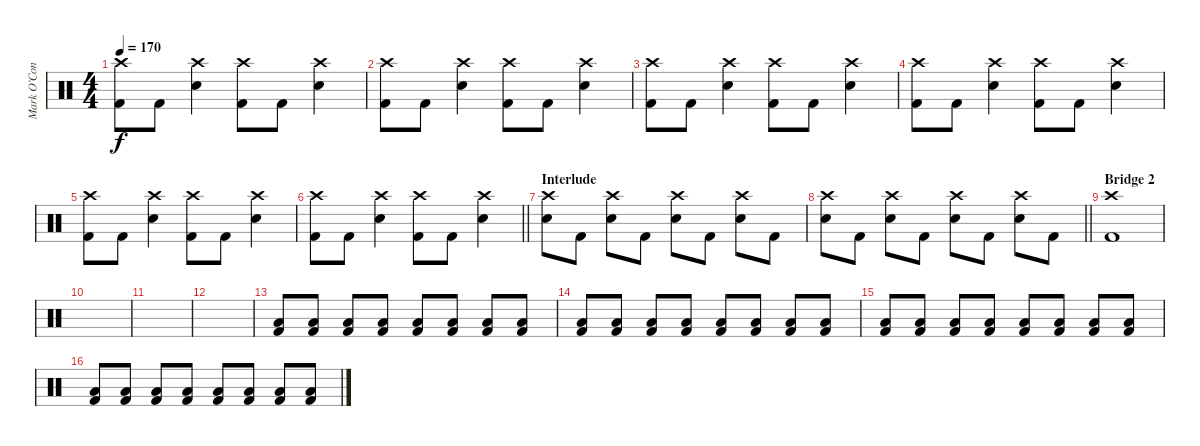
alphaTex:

\track ("Mark O’Connell - Drums" "Mark O’Con") {instrument percussion}
\staff {score}
\articulation defaults
\ts (4 4)
\tempo 170
\clef neutral
\ks c
("Crash high (hit)" "Kick (hit) 2").8{dy f} "Kick (hit) 2".8 ("Crash high (hit)" "Snare (hit) 2").4 ("Crash high (hit)" "Kick (hit) 2").8 "Kick (hit) 2".8 ("Crash high (hit)" "Snare (hit) 2").4 |
("Crash high (hit)" "Kick (hit) 2").8 "Kick (hit) 2".8 ("Crash high (hit)" "Snare (hit) 2").4 ("Crash high (hit)" "Kick (hit) 2").8 "Kick (hit) 2".8 ("Crash high (hit)" "Snare (hit) 2").4 |
("Crash high (hit)" "Kick (hit) 2").8 "Kick (hit) 2".8 ("Crash high (hit)" "Snare (hit) 2").4 ("Crash high (hit)" "Kick (hit) 2").8 "Kick (hit) 2".8 ("Crash high (hit)" "Snare (hit) 2").4 |
("Crash high (hit)" "Kick (hit) 2").8 "Kick (hit) 2".8 ("Crash high (hit)" "Snare (hit) 2").4 ("Crash high (hit)" "Kick (hit) 2").8 "Kick (hit) 2".8 ("Crash high (hit)" "Snare (hit) 2").4 |
("Crash high (hit)" "Kick (hit) 2").8 "Kick (hit) 2".8 ("Crash high (hit)" "Snare (hit) 2").4 ("Crash high (hit)" "Kick (hit) 2").8 "Kick (hit) 2".8 ("Crash high (hit)" "Snare (hit) 2").4 |
\barLineRight lightlight
("Crash high (hit)" "Kick (hit) 2").8 "Kick (hit) 2".8 ("Crash high (hit)" "Snare (hit) 2").4 ("Crash high (hit)" "Kick (hit) 2").8 "Kick (hit) 2".8 ("Crash high (hit)" "Snare (hit) 2").4 |
\section ("" "Interlude")
("Crash high (hit)" "Snare (hit) 2").8 "Kick (hit) 2".8 ("Crash high (hit)" "Snare (hit) 2").8 "Kick (hit) 2".8 ("Crash high (hit)" "Snare (hit) 2").8 "Kick (hit) 2".8 ("Crash high (hit)" "Snare (hit) 2").8 "Kick (hit) 2".8 |
\barLineRight lightlight
("Crash high (hit)" "Snare (hit) 2").8 "Kick (hit) 2".8 ("Crash high (hit)" "Snare (hit) 2").8 "Kick (hit) 2".8 ("Crash high (hit)" "Snare (hit) 2").8 "Kick (hit) 2".8 ("Crash high (hit)" "Snare (hit) 2").8 "Kick (hit) 2".8 |
\section ("" "Bridge 2")
("Crash high (hit)" "Kick (hit) 2").1 |
|
|
|
("Low Tom (hit)" "Kick (hit) 2").8{volume 10} ("Low Tom (hit)" "Kick (hit) 2").8{volume 13} ("Low Tom (hit)" "Kick (hit) 2").8 ("Low Tom (hit)" "Kick (hit) 2").8 ("Low Tom (hit)" "Kick (hit) 2").8 ("Low Tom (hit)" "Kick (hit) 2").8 ("Low Tom (hit)" "Kick (hit) 2").8 ("Low Tom (hit)" "Kick (hit) 2").8 |
("Low Tom (hit)" "Kick (hit) 2").8 ("Low Tom (hit)" "Kick (hit) 2").8 ("Low Tom (hit)" "Kick (hit) 2").8 ("Low Tom (hit)" "Kick (hit) 2").8 ("Low Tom (hit)" "Kick (hit) 2").8 ("Low Tom (hit)" "Kick (hit) 2").8 ("Low Tom (hit)" "Kick (hit) 2").8 ("Low Tom (hit)" "Kick (hit) 2").8 |
("Low Tom (hit)" "Kick (hit) 2").8 ("Low Tom (hit)" "Kick (hit) 2").8 ("Low Tom (hit)" "Kick (hit) 2").8 ("Low Tom (hit)" "Kick (hit) 2").8 ("Low Tom (hit)" "Kick (hit) 2").8 ("Low Tom (hit)" "Kick (hit) 2").8 ("Low Tom (hit)" "Kick (hit) 2").8 ("Low Tom (hit)" "Kick (hit) 2").8 |
("Low Tom (hit)" "Kick (hit) 2").8 ("Low Tom (hit)" "Kick (hit) 2").8 ("Low Tom (hit)" "Kick (hit) 2").8 ("Low Tom (hit)" "Kick (hit) 2").8 ("Low Tom (hit)" "Kick (hit) 2").8 ("Low Tom (hit)" "Kick (hit) 2").8 ("Low Tom (hit)" "Kick (hit) 2").8 ("Low Tom (hit)" "Kick (hit) 2").8
